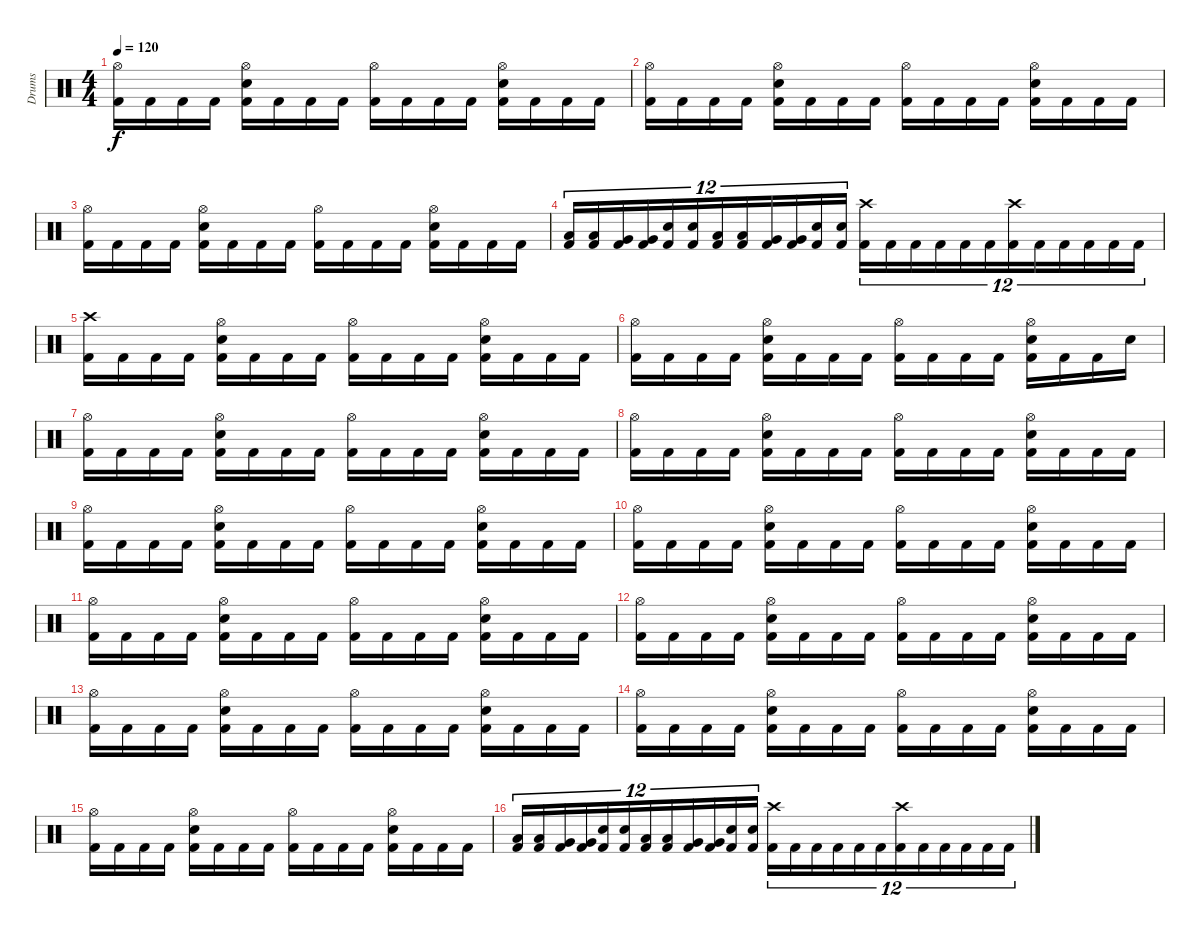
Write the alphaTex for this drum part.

\track ("Drums" "Drums") {instrument percussion}
\staff {score}
\articulation defaults
\ts (4 4)
\tempo 120
\clef neutral
\ks c
("Hi-Hat (open)" "Kick (hit) 2").16{dy f} "Kick (hit) 2".16 "Kick (hit) 2".16 "Kick (hit) 2".16 ("Hi-Hat (open)" "Electric Snare (hit)" "Kick (hit) 2").16 "Kick (hit) 2".16 "Kick (hit) 2".16 "Kick (hit) 2".16 ("Hi-Hat (open)" "Kick (hit) 2").16 "Kick (hit) 2".16 "Kick (hit) 2".16 "Kick (hit) 2".16 ("Hi-Hat (open)" "Electric Snare (hit)" "Kick (hit) 2").16 "Kick (hit) 2".16 "Kick (hit) 2".16 "Kick (hit) 2".16 |
("Hi-Hat (open)" "Kick (hit) 2").16 "Kick (hit) 2".16 "Kick (hit) 2".16 "Kick (hit) 2".16 ("Hi-Hat (open)" "Electric Snare (hit)" "Kick (hit) 2").16 "Kick (hit) 2".16 "Kick (hit) 2".16 "Kick (hit) 2".16 ("Hi-Hat (open)" "Kick (hit) 2").16 "Kick (hit) 2".16 "Kick (hit) 2".16 "Kick (hit) 2".16 ("Hi-Hat (open)" "Electric Snare (hit)" "Kick (hit) 2").16 "Kick (hit) 2".16 "Kick (hit) 2".16 "Kick (hit) 2".16 |
("Hi-Hat (open)" "Kick (hit) 2").16 "Kick (hit) 2".16 "Kick (hit) 2".16 "Kick (hit) 2".16 ("Hi-Hat (open)" "Electric Snare (hit)" "Kick (hit) 2").16 "Kick (hit) 2".16 "Kick (hit) 2".16 "Kick (hit) 2".16 ("Hi-Hat (open)" "Kick (hit) 2").16 "Kick (hit) 2".16 "Kick (hit) 2".16 "Kick (hit) 2".16 ("Hi-Hat (open)" "Electric Snare (hit)" "Kick (hit) 2").16 "Kick (hit) 2".16 "Kick (hit) 2".16 "Kick (hit) 2".16 |
("Low Floor Tom (hit)" "Kick (hit) 2").16{tu (12 8)} ("Low Floor Tom (hit)" "Kick (hit) 2").16{tu (12 8)} ("Very Low Tom (hit)" "Kick (hit) 2").16{tu (12 8)} ("Very Low Tom (hit)" "Kick (hit) 2").16{tu (12 8)} ("Electric Snare (hit)" "Kick (hit) 2").16{tu (12 8)} ("Electric Snare (hit)" "Kick (hit) 2").16{tu (12 8)} ("Low Floor Tom (hit)" "Kick (hit) 2").16{tu (12 8)} ("Low Floor Tom (hit)" "Kick (hit) 2").16{tu (12 8)} ("Very Low Tom (hit)" "Kick (hit) 2").16{tu (12 8)} ("Very Low Tom (hit)" "Kick (hit) 2").16{tu (12 8)} ("Electric Snare (hit)" "Kick (hit) 2").16{tu (12 8)} ("Electric Snare (hit)" "Kick (hit) 2").16{tu (12 8)} ("Crash high (hit)" "Kick (hit) 2").16{tu (12 8)} "Kick (hit) 2".16{tu (12 8)} "Kick (hit) 2".16{tu (12 8)} "Kick (hit) 2".16{tu (12 8)} "Kick (hit) 2".16{tu (12 8)} "Kick (hit) 2".16{tu (12 8)} ("Crash high (hit)" "Kick (hit) 2").16{tu (12 8)} "Kick (hit) 2".16{tu (12 8)} "Kick (hit) 2".16{tu (12 8)} "Kick (hit) 2".16{tu (12 8)} "Kick (hit) 2".16{tu (12 8)} "Kick (hit) 2".16{tu (12 8)} |
("Crash high (hit)" "Kick (hit) 2").16 "Kick (hit) 2".16 "Kick (hit) 2".16 "Kick (hit) 2".16 ("Hi-Hat (open)" "Electric Snare (hit)" "Kick (hit) 2").16 "Kick (hit) 2".16 "Kick (hit) 2".16 "Kick (hit) 2".16 ("Hi-Hat (open)" "Kick (hit) 2").16 "Kick (hit) 2".16 "Kick (hit) 2".16 "Kick (hit) 2".16 ("Hi-Hat (open)" "Electric Snare (hit)" "Kick (hit) 2").16 "Kick (hit) 2".16 "Kick (hit) 2".16 "Kick (hit) 2".16 |
("Hi-Hat (open)" "Kick (hit) 2").16 "Kick (hit) 2".16 "Kick (hit) 2".16 "Kick (hit) 2".16 ("Hi-Hat (open)" "Electric Snare (hit)" "Kick (hit) 2").16 "Kick (hit) 2".16 "Kick (hit) 2".16 "Kick (hit) 2".16 ("Hi-Hat (open)" "Kick (hit) 2").16 "Kick (hit) 2".16 "Kick (hit) 2".16 "Kick (hit) 2".16 ("Hi-Hat (open)" "Electric Snare (hit)" "Kick (hit) 2").16 "Kick (hit) 2".16 "Kick (hit) 2".16 "Snare (hit)".16 |
("Hi-Hat (open)" "Kick (hit) 2").16 "Kick (hit) 2".16 "Kick (hit) 2".16 "Kick (hit) 2".16 ("Hi-Hat (open)" "Electric Snare (hit)" "Kick (hit) 2").16 "Kick (hit) 2".16 "Kick (hit) 2".16 "Kick (hit) 2".16 ("Hi-Hat (open)" "Kick (hit) 2").16 "Kick (hit) 2".16 "Kick (hit) 2".16 "Kick (hit) 2".16 ("Hi-Hat (open)" "Electric Snare (hit)" "Kick (hit) 2").16 "Kick (hit) 2".16 "Kick (hit) 2".16 "Kick (hit) 2".16 |
("Hi-Hat (open)" "Kick (hit) 2").16 "Kick (hit) 2".16 "Kick (hit) 2".16 "Kick (hit) 2".16 ("Hi-Hat (open)" "Electric Snare (hit)" "Kick (hit) 2").16 "Kick (hit) 2".16 "Kick (hit) 2".16 "Kick (hit) 2".16 ("Hi-Hat (open)" "Kick (hit) 2").16 "Kick (hit) 2".16 "Kick (hit) 2".16 "Kick (hit) 2".16 ("Hi-Hat (open)" "Electric Snare (hit)" "Kick (hit) 2").16 "Kick (hit) 2".16 "Kick (hit) 2".16 "Kick (hit) 2".16 |
("Hi-Hat (open)" "Kick (hit) 2").16 "Kick (hit) 2".16 "Kick (hit) 2".16 "Kick (hit) 2".16 ("Hi-Hat (open)" "Electric Snare (hit)" "Kick (hit) 2").16 "Kick (hit) 2".16 "Kick (hit) 2".16 "Kick (hit) 2".16 ("Hi-Hat (open)" "Kick (hit) 2").16 "Kick (hit) 2".16 "Kick (hit) 2".16 "Kick (hit) 2".16 ("Hi-Hat (open)" "Electric Snare (hit)" "Kick (hit) 2").16 "Kick (hit) 2".16 "Kick (hit) 2".16 "Kick (hit) 2".16 |
("Hi-Hat (open)" "Kick (hit) 2").16 "Kick (hit) 2".16 "Kick (hit) 2".16 "Kick (hit) 2".16 ("Hi-Hat (open)" "Electric Snare (hit)" "Kick (hit) 2").16 "Kick (hit) 2".16 "Kick (hit) 2".16 "Kick (hit) 2".16 ("Hi-Hat (open)" "Kick (hit) 2").16 "Kick (hit) 2".16 "Kick (hit) 2".16 "Kick (hit) 2".16 ("Hi-Hat (open)" "Electric Snare (hit)" "Kick (hit) 2").16 "Kick (hit) 2".16 "Kick (hit) 2".16 "Kick (hit) 2".16 |
("Hi-Hat (open)" "Kick (hit) 2").16 "Kick (hit) 2".16 "Kick (hit) 2".16 "Kick (hit) 2".16 ("Hi-Hat (open)" "Electric Snare (hit)" "Kick (hit) 2").16 "Kick (hit) 2".16 "Kick (hit) 2".16 "Kick (hit) 2".16 ("Hi-Hat (open)" "Kick (hit) 2").16 "Kick (hit) 2".16 "Kick (hit) 2".16 "Kick (hit) 2".16 ("Hi-Hat (open)" "Electric Snare (hit)" "Kick (hit) 2").16 "Kick (hit) 2".16 "Kick (hit) 2".16 "Kick (hit) 2".16 |
("Hi-Hat (open)" "Kick (hit) 2").16 "Kick (hit) 2".16 "Kick (hit) 2".16 "Kick (hit) 2".16 ("Hi-Hat (open)" "Electric Snare (hit)" "Kick (hit) 2").16 "Kick (hit) 2".16 "Kick (hit) 2".16 "Kick (hit) 2".16 ("Hi-Hat (open)" "Kick (hit) 2").16 "Kick (hit) 2".16 "Kick (hit) 2".16 "Kick (hit) 2".16 ("Hi-Hat (open)" "Electric Snare (hit)" "Kick (hit) 2").16 "Kick (hit) 2".16 "Kick (hit) 2".16 "Kick (hit) 2".16 |
("Hi-Hat (open)" "Kick (hit) 2").16 "Kick (hit) 2".16 "Kick (hit) 2".16 "Kick (hit) 2".16 ("Hi-Hat (open)" "Electric Snare (hit)" "Kick (hit) 2").16 "Kick (hit) 2".16 "Kick (hit) 2".16 "Kick (hit) 2".16 ("Hi-Hat (open)" "Kick (hit) 2").16 "Kick (hit) 2".16 "Kick (hit) 2".16 "Kick (hit) 2".16 ("Hi-Hat (open)" "Electric Snare (hit)" "Kick (hit) 2").16 "Kick (hit) 2".16 "Kick (hit) 2".16 "Kick (hit) 2".16 |
("Hi-Hat (open)" "Kick (hit) 2").16 "Kick (hit) 2".16 "Kick (hit) 2".16 "Kick (hit) 2".16 ("Hi-Hat (open)" "Electric Snare (hit)" "Kick (hit) 2").16 "Kick (hit) 2".16 "Kick (hit) 2".16 "Kick (hit) 2".16 ("Hi-Hat (open)" "Kick (hit) 2").16 "Kick (hit) 2".16 "Kick (hit) 2".16 "Kick (hit) 2".16 ("Hi-Hat (open)" "Electric Snare (hit)" "Kick (hit) 2").16 "Kick (hit) 2".16 "Kick (hit) 2".16 "Kick (hit) 2".16 |
("Hi-Hat (open)" "Kick (hit) 2").16 "Kick (hit) 2".16 "Kick (hit) 2".16 "Kick (hit) 2".16 ("Hi-Hat (open)" "Electric Snare (hit)" "Kick (hit) 2").16 "Kick (hit) 2".16 "Kick (hit) 2".16 "Kick (hit) 2".16 ("Hi-Hat (open)" "Kick (hit) 2").16 "Kick (hit) 2".16 "Kick (hit) 2".16 "Kick (hit) 2".16 ("Hi-Hat (open)" "Electric Snare (hit)" "Kick (hit) 2").16 "Kick (hit) 2".16 "Kick (hit) 2".16 "Kick (hit) 2".16 |
("Low Floor Tom (hit)" "Kick (hit) 2").16{tu (12 8)} ("Low Floor Tom (hit)" "Kick (hit) 2").16{tu (12 8)} ("Very Low Tom (hit)" "Kick (hit) 2").16{tu (12 8)} ("Very Low Tom (hit)" "Kick (hit) 2").16{tu (12 8)} ("Electric Snare (hit)" "Kick (hit) 2").16{tu (12 8)} ("Electric Snare (hit)" "Kick (hit) 2").16{tu (12 8)} ("Low Floor Tom (hit)" "Kick (hit) 2").16{tu (12 8)} ("Low Floor Tom (hit)" "Kick (hit) 2").16{tu (12 8)} ("Very Low Tom (hit)" "Kick (hit) 2").16{tu (12 8)} ("Very Low Tom (hit)" "Kick (hit) 2").16{tu (12 8)} ("Electric Snare (hit)" "Kick (hit) 2").16{tu (12 8)} ("Electric Snare (hit)" "Kick (hit) 2").16{tu (12 8)} ("Crash high (hit)" "Kick (hit) 2").16{tu (12 8)} "Kick (hit) 2".16{tu (12 8)} "Kick (hit) 2".16{tu (12 8)} "Kick (hit) 2".16{tu (12 8)} "Kick (hit) 2".16{tu (12 8)} "Kick (hit) 2".16{tu (12 8)} ("Crash high (hit)" "Kick (hit) 2").16{tu (12 8)} "Kick (hit) 2".16{tu (12 8)} "Kick (hit) 2".16{tu (12 8)} "Kick (hit) 2".16{tu (12 8)} "Kick (hit) 2".16{tu (12 8)} "Kick (hit) 2".16{tu (12 8)}
